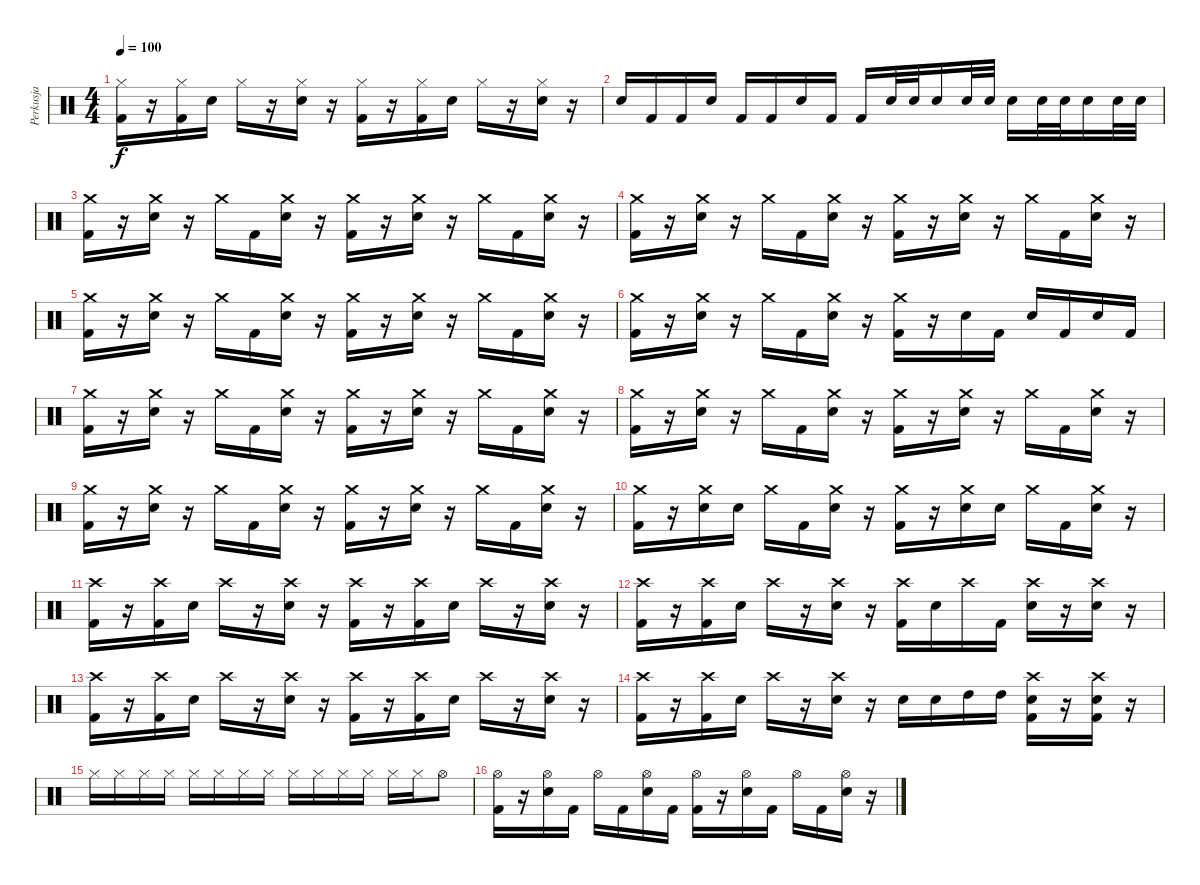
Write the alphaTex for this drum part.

\track ("Perkusja" "Perkusja") {instrument percussion}
\staff {score}
\articulation defaults
\ts (4 4)
\tempo 100
\clef neutral
\ks c
("Hi-Hat (closed)" "Kick (hit) 2").16{dy f} r.16 ("Hi-Hat (closed)" "Kick (hit) 2").16 "Electric Snare (hit)".16 "Hi-Hat (closed)".16 r.16 ("Hi-Hat (closed)" "Electric Snare (hit)").16 r.16 ("Hi-Hat (closed)" "Kick (hit) 2").16 r.16 ("Hi-Hat (closed)" "Kick (hit) 2").16 "Electric Snare (hit)".16 "Hi-Hat (closed)".16 r.16 ("Hi-Hat (closed)" "Electric Snare (hit)").16 r.16 |
"Electric Snare (hit)".16 "Kick (hit) 2".16 "Kick (hit) 2".16 "Electric Snare (hit)".16 "Kick (hit) 2".16 "Kick (hit) 2".16 "Electric Snare (hit)".16 "Kick (hit) 2".16 "Kick (hit) 2".16 "Electric Snare (hit)".32 "Electric Snare (hit)".32 "Electric Snare (hit)".16 "Electric Snare (hit)".32 "Electric Snare (hit)".32 "Electric Snare (hit)".16 "Electric Snare (hit)".32 "Electric Snare (hit)".32 "Electric Snare (hit)".16 "Electric Snare (hit)".32 "Electric Snare (hit)".32 |
("Crash medium (hit)" "Kick (hit) 2").16 r.16 ("Crash medium (hit)" "Electric Snare (hit)").16 r.16 "Crash medium (hit)".16 "Kick (hit) 2".16 ("Crash medium (hit)" "Electric Snare (hit)").16 r.16 ("Crash medium (hit)" "Kick (hit) 2").16 r.16 ("Crash medium (hit)" "Electric Snare (hit)").16 r.16 "Crash medium (hit)".16 "Kick (hit) 2".16 ("Crash medium (hit)" "Electric Snare (hit)").16 r.16 |
("Crash medium (hit)" "Kick (hit) 2").16 r.16 ("Crash medium (hit)" "Electric Snare (hit)").16 r.16 "Crash medium (hit)".16 "Kick (hit) 2".16 ("Crash medium (hit)" "Electric Snare (hit)").16 r.16 ("Crash medium (hit)" "Kick (hit) 2").16 r.16 ("Crash medium (hit)" "Electric Snare (hit)").16 r.16 "Crash medium (hit)".16 "Kick (hit) 2".16 ("Crash medium (hit)" "Electric Snare (hit)").16 r.16 |
("Crash medium (hit)" "Kick (hit) 2").16 r.16 ("Crash medium (hit)" "Electric Snare (hit)").16 r.16 "Crash medium (hit)".16 "Kick (hit) 2".16 ("Crash medium (hit)" "Electric Snare (hit)").16 r.16 ("Crash medium (hit)" "Kick (hit) 2").16 r.16 ("Crash medium (hit)" "Electric Snare (hit)").16 r.16 "Crash medium (hit)".16 "Kick (hit) 2".16 ("Crash medium (hit)" "Electric Snare (hit)").16 r.16 |
("Crash medium (hit)" "Kick (hit) 2").16 r.16 ("Crash medium (hit)" "Electric Snare (hit)").16 r.16 "Crash medium (hit)".16 "Kick (hit) 2".16 ("Crash medium (hit)" "Electric Snare (hit)").16 r.16 ("Crash medium (hit)" "Kick (hit) 2").16 r.16 "Electric Snare (hit)".16 "Kick (hit) 2".16 "Electric Snare (hit)".16 "Kick (hit) 2".16 "Electric Snare (hit)".16 "Kick (hit) 2".16 |
("Crash medium (hit)" "Kick (hit) 2").16 r.16 ("Crash medium (hit)" "Electric Snare (hit)").16 r.16 "Crash medium (hit)".16 "Kick (hit) 2".16 ("Crash medium (hit)" "Electric Snare (hit)").16 r.16 ("Crash medium (hit)" "Kick (hit) 2").16 r.16 ("Crash medium (hit)" "Electric Snare (hit)").16 r.16 "Crash medium (hit)".16 "Kick (hit) 2".16 ("Crash medium (hit)" "Electric Snare (hit)").16 r.16 |
("Crash medium (hit)" "Kick (hit) 2").16 r.16 ("Crash medium (hit)" "Electric Snare (hit)").16 r.16 "Crash medium (hit)".16 "Kick (hit) 2".16 ("Crash medium (hit)" "Electric Snare (hit)").16 r.16 ("Crash medium (hit)" "Kick (hit) 2").16 r.16 ("Crash medium (hit)" "Electric Snare (hit)").16 r.16 "Crash medium (hit)".16 "Kick (hit) 2".16 ("Crash medium (hit)" "Electric Snare (hit)").16 r.16 |
("Crash medium (hit)" "Kick (hit) 2").16 r.16 ("Crash medium (hit)" "Electric Snare (hit)").16 r.16 "Crash medium (hit)".16 "Kick (hit) 2".16 ("Crash medium (hit)" "Electric Snare (hit)").16 r.16 ("Crash medium (hit)" "Kick (hit) 2").16 r.16 ("Crash medium (hit)" "Electric Snare (hit)").16 r.16 "Crash medium (hit)".16 "Kick (hit) 2".16 ("Crash medium (hit)" "Electric Snare (hit)").16 r.16 |
("Crash medium (hit)" "Kick (hit) 2").16 r.16 ("Crash medium (hit)" "Electric Snare (hit)").16 "Electric Snare (hit)".16 "Crash medium (hit)".16 "Kick (hit) 2".16 ("Crash medium (hit)" "Electric Snare (hit)").16 r.16 ("Crash medium (hit)" "Kick (hit) 2").16 r.16 ("Crash medium (hit)" "Electric Snare (hit)").16 "Electric Snare (hit)".16 "Crash medium (hit)".16 "Kick (hit) 2".16 ("Crash medium (hit)" "Electric Snare (hit)").16 r.16 |
("Crash high (hit)" "Kick (hit) 2").16 r.16 ("Crash high (hit)" "Kick (hit) 2").16 "Electric Snare (hit)".16 "Crash high (hit)".16 r.16 ("Crash high (hit)" "Electric Snare (hit)").16 r.16 ("Crash high (hit)" "Kick (hit) 2").16 r.16 ("Crash high (hit)" "Kick (hit) 2").16 "Electric Snare (hit)".16 "Crash high (hit)".16 r.16 ("Crash high (hit)" "Electric Snare (hit)").16 r.16 |
("Crash high (hit)" "Kick (hit) 2").16 r.16 ("Crash high (hit)" "Kick (hit) 2").16 "Electric Snare (hit)".16 "Crash high (hit)".16 r.16 ("Crash high (hit)" "Electric Snare (hit)").16 r.16 ("Crash high (hit)" "Kick (hit) 2").16 "Electric Snare (hit)".16 "Crash high (hit)".16 "Kick (hit) 2".16 ("Crash high (hit)" "Electric Snare (hit)").16 r.16 ("Crash high (hit)" "Electric Snare (hit)").16 r.16 |
("Crash high (hit)" "Kick (hit) 2").16 r.16 ("Crash high (hit)" "Kick (hit) 2").16 "Electric Snare (hit)".16 "Crash high (hit)".16 r.16 ("Crash high (hit)" "Electric Snare (hit)").16 r.16 ("Crash high (hit)" "Kick (hit) 2").16 r.16 ("Crash high (hit)" "Kick (hit) 2").16 "Electric Snare (hit)".16 "Crash high (hit)".16 r.16 ("Crash high (hit)" "Electric Snare (hit)").16 r.16 |
("Crash high (hit)" "Kick (hit) 2").16 r.16 ("Crash high (hit)" "Kick (hit) 2").16 "Electric Snare (hit)".16 "Crash high (hit)".16 r.16 ("Crash high (hit)" "Electric Snare (hit)").16 r.16 "Electric Snare (hit)".16 "Electric Snare (hit)".16 "High Tom (hit)".16 "High Tom (hit)".16 ("Crash high (hit)" "Electric Snare (hit)" "Kick (hit) 2").16 r.16 ("Crash high (hit)" "Electric Snare (hit)" "Kick (hit) 2").16 r.16 |
"Hi-Hat (closed)".16 "Hi-Hat (closed)".16 "Hi-Hat (closed)".16 "Hi-Hat (closed)".16 "Hi-Hat (closed)".16 "Hi-Hat (closed)".16 "Hi-Hat (closed)".16 "Hi-Hat (closed)".16 "Hi-Hat (closed)".16 "Hi-Hat (closed)".16 "Hi-Hat (closed)".16 "Hi-Hat (closed)".16 "Hi-Hat (closed)".16 "Hi-Hat (closed)".16 "Hi-Hat (open)".8 |
("Hi-Hat (open)" "Kick (hit) 2").16 r.16 ("Hi-Hat (open)" "Electric Snare (hit)").16 "Kick (hit) 2".16 "Hi-Hat (open)".16 "Kick (hit) 2".16 ("Hi-Hat (open)" "Electric Snare (hit)").16 "Kick (hit) 2".16 ("Hi-Hat (open)" "Kick (hit) 2").16 r.16 ("Hi-Hat (open)" "Electric Snare (hit)").16 "Kick (hit) 2".16 "Hi-Hat (open)".16 "Kick (hit) 2".16 ("Hi-Hat (open)" "Electric Snare (hit)").16 r.16
